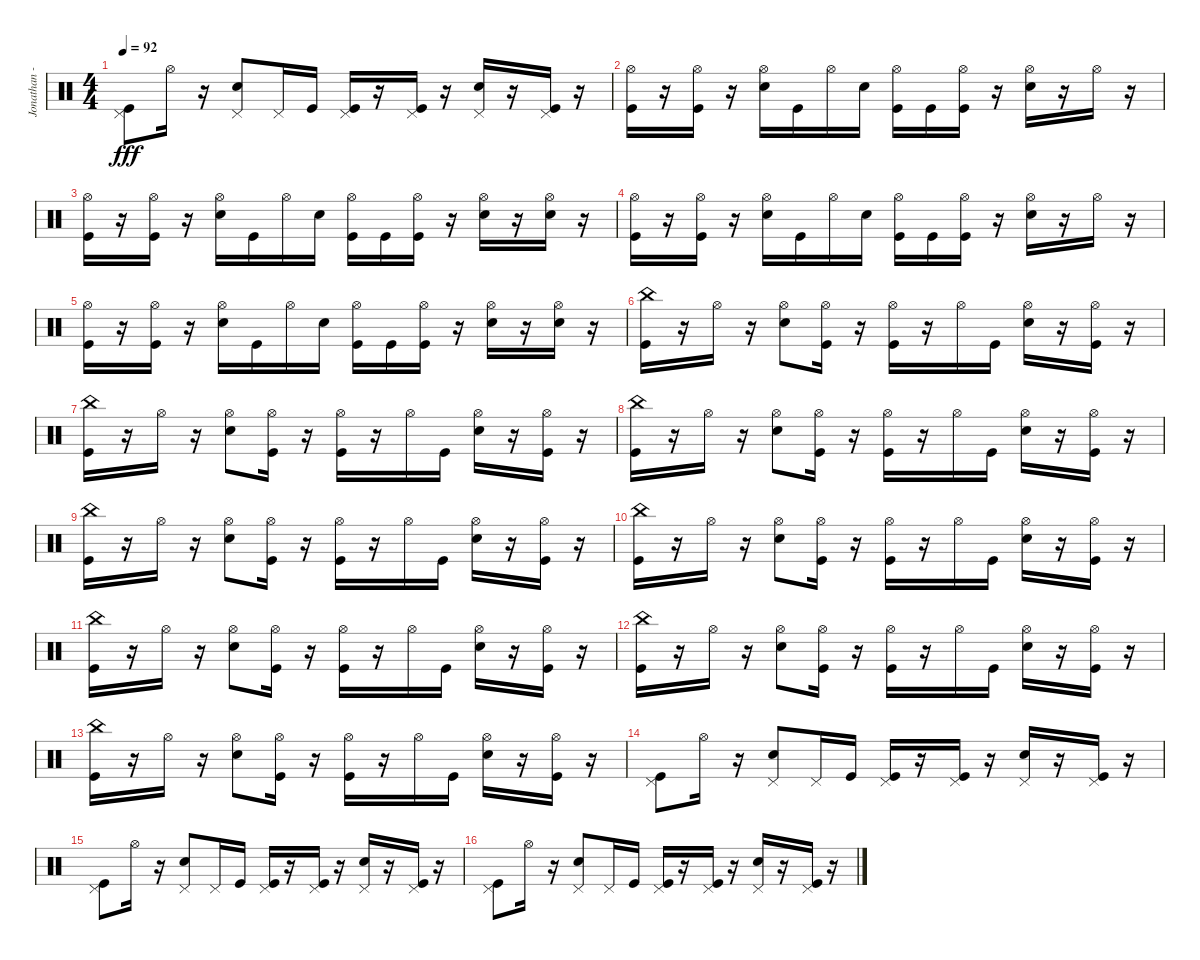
\track ("Jonathan - Drums" "Jonathan -") {instrument percussion}
\staff {score}
\articulation defaults
\ts (4 4)
\tempo 92
\clef neutral
\ks c
("Kick (hit)" "Pedal Hi-Hat (hit)").8{dy fff} "Hi-Hat (open)".16 r.16 ("Electric Snare (hit)" "Pedal Hi-Hat (hit)").8 "Pedal Hi-Hat (hit)".16 "Kick (hit)".16 ("Kick (hit)" "Pedal Hi-Hat (hit)").16 r.16 ("Kick (hit)" "Pedal Hi-Hat (hit)").16 r.16 ("Electric Snare (hit)" "Pedal Hi-Hat (hit)").16 r.16 ("Kick (hit)" "Pedal Hi-Hat (hit)").16 r.16 |
("Hi-Hat (open)" "Kick (hit)").16 r.16 ("Hi-Hat (open)" "Kick (hit)").16 r.16 ("Hi-Hat (open)" "Electric Snare (hit)").16 "Kick (hit)".16 "Hi-Hat (open)".16 "Electric Snare (hit)".16 ("Hi-Hat (open)" "Kick (hit)").16 "Kick (hit)".16 ("Hi-Hat (open)" "Kick (hit)").16 r.16 ("Hi-Hat (open)" "Electric Snare (hit)").16 r.16 "Hi-Hat (open)".16 r.16 |
("Hi-Hat (open)" "Kick (hit)").16 r.16 ("Hi-Hat (open)" "Kick (hit)").16 r.16 ("Hi-Hat (open)" "Electric Snare (hit)").16 "Kick (hit)".16 "Hi-Hat (open)".16 "Electric Snare (hit)".16 ("Hi-Hat (open)" "Kick (hit)").16 "Kick (hit)".16 ("Hi-Hat (open)" "Kick (hit)").16 r.16 ("Hi-Hat (open)" "Electric Snare (hit)").16 r.16 ("Hi-Hat (open)" "Electric Snare (hit)").16 r.16 |
("Hi-Hat (open)" "Kick (hit)").16 r.16 ("Hi-Hat (open)" "Kick (hit)").16 r.16 ("Hi-Hat (open)" "Electric Snare (hit)").16 "Kick (hit)".16 "Hi-Hat (open)".16 "Electric Snare (hit)".16 ("Hi-Hat (open)" "Kick (hit)").16 "Kick (hit)".16 ("Hi-Hat (open)" "Kick (hit)").16 r.16 ("Hi-Hat (open)" "Electric Snare (hit)").16 r.16 "Hi-Hat (open)".16 r.16 |
("Hi-Hat (open)" "Kick (hit)").16 r.16 ("Hi-Hat (open)" "Kick (hit)").16 r.16 ("Hi-Hat (open)" "Electric Snare (hit)").16 "Kick (hit)".16 "Hi-Hat (open)".16 "Electric Snare (hit)".16 ("Hi-Hat (open)" "Kick (hit)").16 "Kick (hit)".16 ("Hi-Hat (open)" "Kick (hit)").16 r.16 ("Hi-Hat (open)" "Electric Snare (hit)").16 r.16 ("Hi-Hat (open)" "Electric Snare (hit)").16 r.16 |
("China (hit)" "Kick (hit)").16 r.16 "Hi-Hat (open)".16 r.16 ("Electric Snare (hit)" "Hi-Hat (open)").8 ("Kick (hit)" "Hi-Hat (open)").16 r.16 ("Kick (hit)" "Hi-Hat (open)").16 r.16 "Hi-Hat (open)".16 "Kick (hit)".16 ("Electric Snare (hit)" "Hi-Hat (open)").16 r.16 ("Kick (hit)" "Hi-Hat (open)").16 r.16 |
("China (hit)" "Kick (hit)").16 r.16 "Hi-Hat (open)".16 r.16 ("Hi-Hat (open)" "Electric Snare (hit)").8 ("Hi-Hat (open)" "Kick (hit)").16 r.16 ("Hi-Hat (open)" "Kick (hit)").16 r.16 "Hi-Hat (open)".16 "Kick (hit)".16 ("Hi-Hat (open)" "Electric Snare (hit)").16 r.16 ("Hi-Hat (open)" "Kick (hit)").16 r.16 |
("China (hit)" "Kick (hit)").16 r.16 "Hi-Hat (open)".16 r.16 ("Electric Snare (hit)" "Hi-Hat (open)").8 ("Kick (hit)" "Hi-Hat (open)").16 r.16 ("Kick (hit)" "Hi-Hat (open)").16 r.16 "Hi-Hat (open)".16 "Kick (hit)".16 ("Electric Snare (hit)" "Hi-Hat (open)").16 r.16 ("Kick (hit)" "Hi-Hat (open)").16 r.16 |
("China (hit)" "Kick (hit)").16 r.16 "Hi-Hat (open)".16 r.16 ("Hi-Hat (open)" "Electric Snare (hit)").8 ("Hi-Hat (open)" "Kick (hit)").16 r.16 ("Hi-Hat (open)" "Kick (hit)").16 r.16 "Hi-Hat (open)".16 "Kick (hit)".16 ("Hi-Hat (open)" "Electric Snare (hit)").16 r.16 ("Hi-Hat (open)" "Kick (hit)").16 r.16 |
("China (hit)" "Kick (hit)").16 r.16 "Hi-Hat (open)".16 r.16 ("Electric Snare (hit)" "Hi-Hat (open)").8 ("Kick (hit)" "Hi-Hat (open)").16 r.16 ("Kick (hit)" "Hi-Hat (open)").16 r.16 "Hi-Hat (open)".16 "Kick (hit)".16 ("Electric Snare (hit)" "Hi-Hat (open)").16 r.16 ("Kick (hit)" "Hi-Hat (open)").16 r.16 |
("China (hit)" "Kick (hit)").16 r.16 "Hi-Hat (open)".16 r.16 ("Hi-Hat (open)" "Electric Snare (hit)").8 ("Hi-Hat (open)" "Kick (hit)").16 r.16 ("Hi-Hat (open)" "Kick (hit)").16 r.16 "Hi-Hat (open)".16 "Kick (hit)".16 ("Hi-Hat (open)" "Electric Snare (hit)").16 r.16 ("Hi-Hat (open)" "Kick (hit)").16 r.16 |
("China (hit)" "Kick (hit)").16 r.16 "Hi-Hat (open)".16 r.16 ("Electric Snare (hit)" "Hi-Hat (open)").8 ("Kick (hit)" "Hi-Hat (open)").16 r.16 ("Kick (hit)" "Hi-Hat (open)").16 r.16 "Hi-Hat (open)".16 "Kick (hit)".16 ("Electric Snare (hit)" "Hi-Hat (open)").16 r.16 ("Kick (hit)" "Hi-Hat (open)").16 r.16 |
("China (hit)" "Kick (hit)").16 r.16 "Hi-Hat (open)".16 r.16 ("Hi-Hat (open)" "Electric Snare (hit)").8 ("Hi-Hat (open)" "Kick (hit)").16 r.16 ("Hi-Hat (open)" "Kick (hit)").16 r.16 "Hi-Hat (open)".16 "Kick (hit)".16 ("Hi-Hat (open)" "Electric Snare (hit)").16 r.16 ("Hi-Hat (open)" "Kick (hit)").16 r.16 |
("Kick (hit)" "Pedal Hi-Hat (hit)").8 "Hi-Hat (open)".16 r.16 ("Electric Snare (hit)" "Pedal Hi-Hat (hit)").8 "Pedal Hi-Hat (hit)".16 "Kick (hit)".16 ("Kick (hit)" "Pedal Hi-Hat (hit)").16 r.16 ("Kick (hit)" "Pedal Hi-Hat (hit)").16 r.16 ("Electric Snare (hit)" "Pedal Hi-Hat (hit)").16 r.16 ("Kick (hit)" "Pedal Hi-Hat (hit)").16 r.16 |
("Kick (hit)" "Pedal Hi-Hat (hit)").8 "Hi-Hat (open)".16 r.16 ("Electric Snare (hit)" "Pedal Hi-Hat (hit)").8 "Pedal Hi-Hat (hit)".16 "Kick (hit)".16 ("Kick (hit)" "Pedal Hi-Hat (hit)").16 r.16 ("Kick (hit)" "Pedal Hi-Hat (hit)").16 r.16 ("Electric Snare (hit)" "Pedal Hi-Hat (hit)").16 r.16 ("Kick (hit)" "Pedal Hi-Hat (hit)").16 r.16 |
("Kick (hit)" "Pedal Hi-Hat (hit)").8 "Hi-Hat (open)".16 r.16 ("Electric Snare (hit)" "Pedal Hi-Hat (hit)").8 "Pedal Hi-Hat (hit)".16 "Kick (hit)".16 ("Kick (hit)" "Pedal Hi-Hat (hit)").16 r.16 ("Kick (hit)" "Pedal Hi-Hat (hit)").16 r.16 ("Electric Snare (hit)" "Pedal Hi-Hat (hit)").16 r.16 ("Kick (hit)" "Pedal Hi-Hat (hit)").16 r.16
